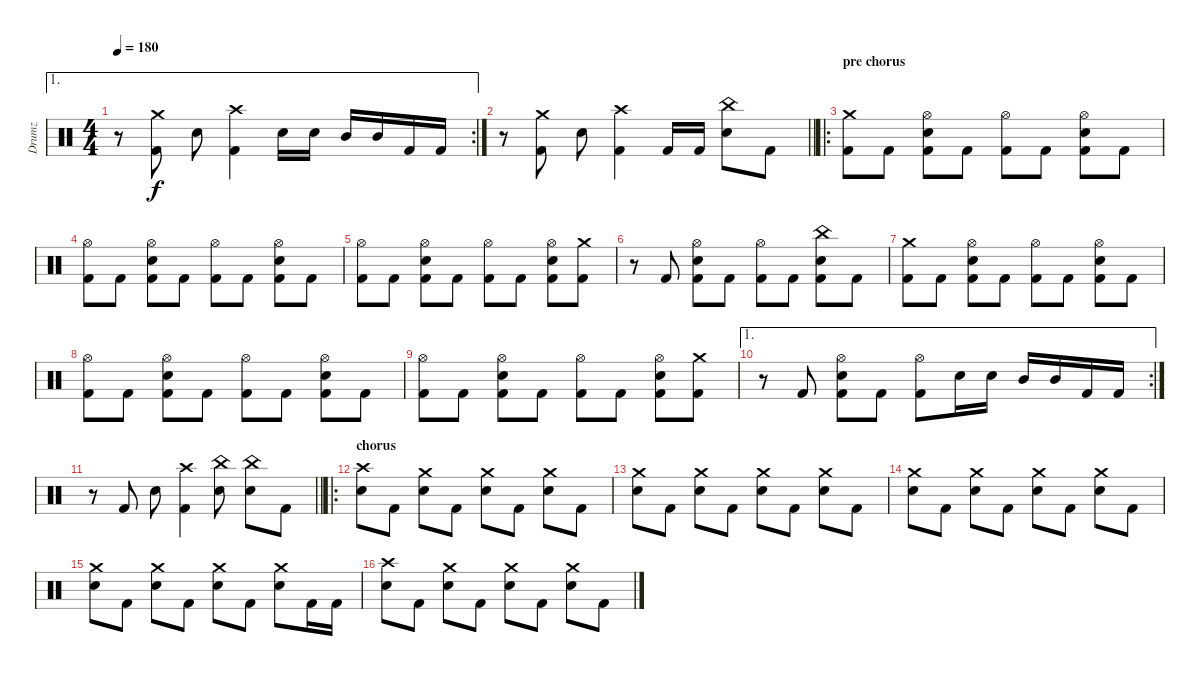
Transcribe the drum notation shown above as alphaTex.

\track ("Drumz" "Drumz") {instrument percussion}
\staff {score}
\articulation defaults
\ae 1
\rc 2
\ts (4 4)
\tempo 180
\clef neutral
\ks c
r.8{dy f} ("Crash medium (hit)" "Kick (hit) 2").8 "Electric Snare (hit)".8 ("Crash high (hit)" "Kick (hit) 2").4 "Electric Snare (hit)".16 "Electric Snare (hit)".16 "Mid Tom (hit)".16 "Mid Tom (hit)".16 "Kick (hit) 2".16 "Kick (hit) 2".16 |
\barLineRight lightlight
r.8 ("Crash medium (hit)" "Kick (hit) 2").8 "Electric Snare (hit)".8 ("Crash high (hit)" "Kick (hit) 2").4 "Kick (hit) 2".16 "Kick (hit) 2".16 ("China (hit)" "Electric Snare (hit)").8 "Kick (hit) 2".8 |
\ro
\section ("" "pre chorus")
("Crash medium (hit)" "Kick (hit) 2").8 "Kick (hit) 2".8 ("Hi-Hat (open)" "Electric Snare (hit)" "Kick (hit) 2").8 "Kick (hit) 2".8 ("Hi-Hat (open)" "Kick (hit) 2").8 "Kick (hit) 2".8 ("Hi-Hat (open)" "Electric Snare (hit)" "Kick (hit) 2").8 "Kick (hit) 2".8 |
("Hi-Hat (open)" "Kick (hit) 2").8 "Kick (hit) 2".8 ("Hi-Hat (open)" "Electric Snare (hit)" "Kick (hit) 2").8 "Kick (hit) 2".8 ("Hi-Hat (open)" "Kick (hit) 2").8 "Kick (hit) 2".8 ("Hi-Hat (open)" "Electric Snare (hit)" "Kick (hit) 2").8 "Kick (hit) 2".8 |
("Hi-Hat (open)" "Kick (hit) 2").8 "Kick (hit) 2".8 ("Hi-Hat (open)" "Electric Snare (hit)" "Kick (hit) 2").8 "Kick (hit) 2".8 ("Hi-Hat (open)" "Kick (hit) 2").8 "Kick (hit) 2".8 ("Hi-Hat (open)" "Electric Snare (hit)" "Kick (hit) 2").8 ("Crash medium (hit)" "Kick (hit) 2").8 |
r.8 "Kick (hit) 2".8 ("Hi-Hat (open)" "Electric Snare (hit)" "Kick (hit) 2").8 "Kick (hit) 2".8 ("Hi-Hat (open)" "Kick (hit) 2").8 "Kick (hit) 2".8 ("China (hit)" "Electric Snare (hit)" "Kick (hit) 2").8 "Kick (hit) 2".8 |
("Crash medium (hit)" "Kick (hit) 2").8 "Kick (hit) 2".8 ("Hi-Hat (open)" "Electric Snare (hit)" "Kick (hit) 2").8 "Kick (hit) 2".8 ("Hi-Hat (open)" "Kick (hit) 2").8 "Kick (hit) 2".8 ("Hi-Hat (open)" "Electric Snare (hit)" "Kick (hit) 2").8 "Kick (hit) 2".8 |
("Hi-Hat (open)" "Kick (hit) 2").8 "Kick (hit) 2".8 ("Hi-Hat (open)" "Electric Snare (hit)" "Kick (hit) 2").8 "Kick (hit) 2".8 ("Hi-Hat (open)" "Kick (hit) 2").8 "Kick (hit) 2".8 ("Hi-Hat (open)" "Electric Snare (hit)" "Kick (hit) 2").8 "Kick (hit) 2".8 |
("Hi-Hat (open)" "Kick (hit) 2").8 "Kick (hit) 2".8 ("Hi-Hat (open)" "Electric Snare (hit)" "Kick (hit) 2").8 "Kick (hit) 2".8 ("Hi-Hat (open)" "Kick (hit) 2").8 "Kick (hit) 2".8 ("Hi-Hat (open)" "Electric Snare (hit)" "Kick (hit) 2").8 ("Crash medium (hit)" "Kick (hit) 2").8 |
\ae 1
\rc 2
r.8 "Kick (hit) 2".8 ("Hi-Hat (open)" "Electric Snare (hit)" "Kick (hit) 2").8 "Kick (hit) 2".8 ("Hi-Hat (open)" "Kick (hit) 2").8 "Electric Snare (hit)".16 "Electric Snare (hit)".16 "Mid Tom (hit)".16 "Mid Tom (hit)".16 "Kick (hit) 2".16 "Kick (hit) 2".16 |
\barLineRight lightlight
r.8 "Kick (hit) 2".8 "Electric Snare (hit)".8 ("Crash high (hit)" "Kick (hit) 2").4 ("China (hit)" "Electric Snare (hit)").8 ("China (hit)" "Electric Snare (hit)").8 "Kick (hit) 2".8 |
\ro
\section ("" "chorus")
("Crash high (hit)" "Electric Snare (hit)").8 "Kick (hit) 2".8 ("Crash medium (hit)" "Electric Snare (hit)").8 "Kick (hit) 2".8 ("Crash medium (hit)" "Electric Snare (hit)").8 "Kick (hit) 2".8 ("Crash medium (hit)" "Electric Snare (hit)").8 "Kick (hit) 2".8 |
("Crash medium (hit)" "Electric Snare (hit)").8 "Kick (hit) 2".8 ("Crash medium (hit)" "Electric Snare (hit)").8 "Kick (hit) 2".8 ("Crash medium (hit)" "Electric Snare (hit)").8 "Kick (hit) 2".8 ("Crash medium (hit)" "Electric Snare (hit)").8 "Kick (hit) 2".8 |
("Crash medium (hit)" "Electric Snare (hit)").8 "Kick (hit) 2".8 ("Crash medium (hit)" "Electric Snare (hit)").8 "Kick (hit) 2".8 ("Crash medium (hit)" "Electric Snare (hit)").8 "Kick (hit) 2".8 ("Crash medium (hit)" "Electric Snare (hit)").8 "Kick (hit) 2".8 |
("Crash medium (hit)" "Electric Snare (hit)").8 "Kick (hit) 2".8 ("Crash medium (hit)" "Electric Snare (hit)").8 "Kick (hit) 2".8 ("Crash medium (hit)" "Electric Snare (hit)").8 "Kick (hit) 2".8 ("Crash medium (hit)" "Electric Snare (hit)").8 "Kick (hit) 2".16 "Kick (hit) 2".16 |
("Crash high (hit)" "Electric Snare (hit)").8 "Kick (hit) 2".8 ("Crash medium (hit)" "Electric Snare (hit)").8 "Kick (hit) 2".8 ("Crash medium (hit)" "Electric Snare (hit)").8 "Kick (hit) 2".8 ("Crash medium (hit)" "Electric Snare (hit)").8 "Kick (hit) 2".8
